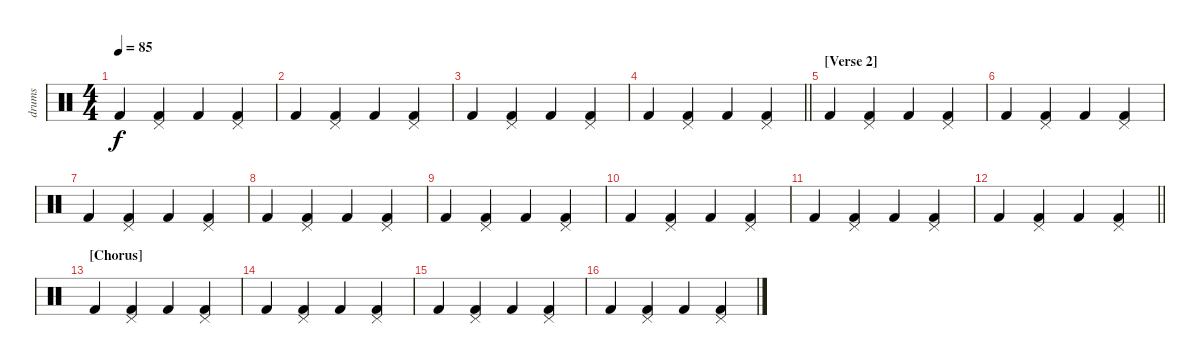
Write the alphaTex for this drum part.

\track ("drums" "drums") {instrument percussion}
\staff {score}
\articulation defaults
\ts (4 4)
\tempo 85
\clef neutral
\ks c "Kick (hit) 2".4{dy f}
("Pedal Hi-Hat (hit)" "Kick (hit) 2").4 "Kick (hit) 2".4 ("Pedal Hi-Hat (hit)" "Kick (hit) 2").4 |
"Kick (hit) 2".4 ("Pedal Hi-Hat (hit)" "Kick (hit) 2").4 "Kick (hit) 2".4 ("Pedal Hi-Hat (hit)" "Kick (hit) 2").4 |
"Kick (hit) 2".4 ("Pedal Hi-Hat (hit)" "Kick (hit) 2").4 "Kick (hit) 2".4 ("Pedal Hi-Hat (hit)" "Kick (hit) 2").4 |
\barLineRight lightlight "Kick (hit) 2".4
("Pedal Hi-Hat (hit)" "Kick (hit) 2").4 "Kick (hit) 2".4 ("Pedal Hi-Hat (hit)" "Kick (hit) 2").4 |
\section ("" "[Verse 2]")
"Kick (hit) 2".4 ("Pedal Hi-Hat (hit)" "Kick (hit) 2").4 "Kick (hit) 2".4 ("Pedal Hi-Hat (hit)" "Kick (hit) 2").4 |
"Kick (hit) 2".4 ("Pedal Hi-Hat (hit)" "Kick (hit) 2").4 "Kick (hit) 2".4 ("Pedal Hi-Hat (hit)" "Kick (hit) 2").4 |
"Kick (hit) 2".4 ("Pedal Hi-Hat (hit)" "Kick (hit) 2").4 "Kick (hit) 2".4 ("Pedal Hi-Hat (hit)" "Kick (hit) 2").4 |
"Kick (hit) 2".4 ("Pedal Hi-Hat (hit)" "Kick (hit) 2").4 "Kick (hit) 2".4 ("Pedal Hi-Hat (hit)" "Kick (hit) 2").4 |
"Kick (hit) 2".4 ("Pedal Hi-Hat (hit)" "Kick (hit) 2").4 "Kick (hit) 2".4 ("Pedal Hi-Hat (hit)" "Kick (hit) 2").4 |
"Kick (hit) 2".4 ("Pedal Hi-Hat (hit)" "Kick (hit) 2").4 "Kick (hit) 2".4 ("Pedal Hi-Hat (hit)" "Kick (hit) 2").4 |
"Kick (hit) 2".4 ("Pedal Hi-Hat (hit)" "Kick (hit) 2").4 "Kick (hit) 2".4 ("Pedal Hi-Hat (hit)" "Kick (hit) 2").4 |
\barLineRight lightlight "Kick (hit) 2".4
("Pedal Hi-Hat (hit)" "Kick (hit) 2").4 "Kick (hit) 2".4 ("Pedal Hi-Hat (hit)" "Kick (hit) 2").4 |
\section ("" "[Chorus]")
"Kick (hit) 2".4 ("Pedal Hi-Hat (hit)" "Kick (hit) 2").4 "Kick (hit) 2".4 ("Pedal Hi-Hat (hit)" "Kick (hit) 2").4 |
"Kick (hit) 2".4 ("Pedal Hi-Hat (hit)" "Kick (hit) 2").4 "Kick (hit) 2".4 ("Pedal Hi-Hat (hit)" "Kick (hit) 2").4 |
"Kick (hit) 2".4 ("Pedal Hi-Hat (hit)" "Kick (hit) 2").4 "Kick (hit) 2".4 ("Pedal Hi-Hat (hit)" "Kick (hit) 2").4 |
"Kick (hit) 2".4 ("Pedal Hi-Hat (hit)" "Kick (hit) 2").4 "Kick (hit) 2".4 ("Pedal Hi-Hat (hit)" "Kick (hit) 2").4
